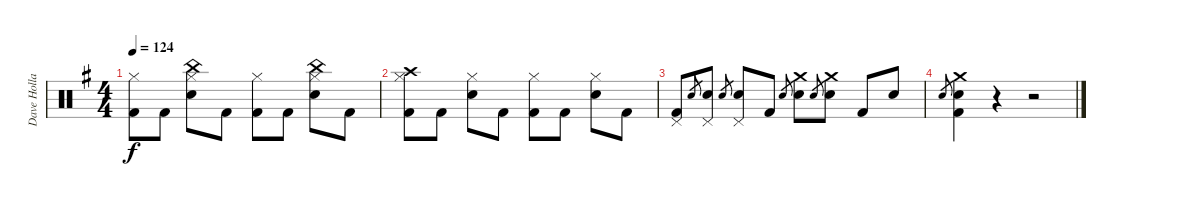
\track ("Dave Holland" "Dave Holla") {instrument percussion}
\staff {score}
\articulation defaults
\ts (4 4)
\tempo 124
\clef neutral
\ks g
("Kick (hit) 2" "Hi-Hat (closed)").8{dy f} "Kick (hit) 2".8 ("Snare (hit) 2" "China (hit)" "Hi-Hat (closed)").8 "Kick (hit) 2".8 ("Kick (hit) 2" "Hi-Hat (closed)").8 "Kick (hit) 2".8 ("Snare (hit) 2" "China (hit)" "Hi-Hat (closed)").8 "Kick (hit) 2".8 |
("Kick (hit) 2" "Crash high (hit)" "Hi-Hat (closed)").8 "Kick (hit) 2".8 ("Snare (hit) 2" "Hi-Hat (closed)").8 "Kick (hit) 2".8 ("Kick (hit) 2" "Hi-Hat (closed)").8 "Kick (hit) 2".8 ("Snare (hit) 2" "Hi-Hat (closed)").8 "Kick (hit) 2".8 |
("Kick (hit) 2" "Pedal Hi-Hat (hit)").8 "Snare (hit) 2".8{gr} ("Snare (hit) 2" "Pedal Hi-Hat (hit)").8 "Snare (hit) 2".8{gr} ("Snare (hit) 2" "Pedal Hi-Hat (hit)").8 "Kick (hit) 2".8 "Snare (hit) 2".8{gr} ("Snare (hit) 2" "Crash medium (hit)").8 "Snare (hit) 2".8{gr} ("Snare (hit) 2" "Crash medium (hit)").8 "Kick (hit) 2".8 "Snare (hit) 2".8 |
"Snare (hit) 2".8{gr} ("Snare (hit) 2" "Crash medium (hit)" "Kick (hit) 2").4 r.4 r.2
